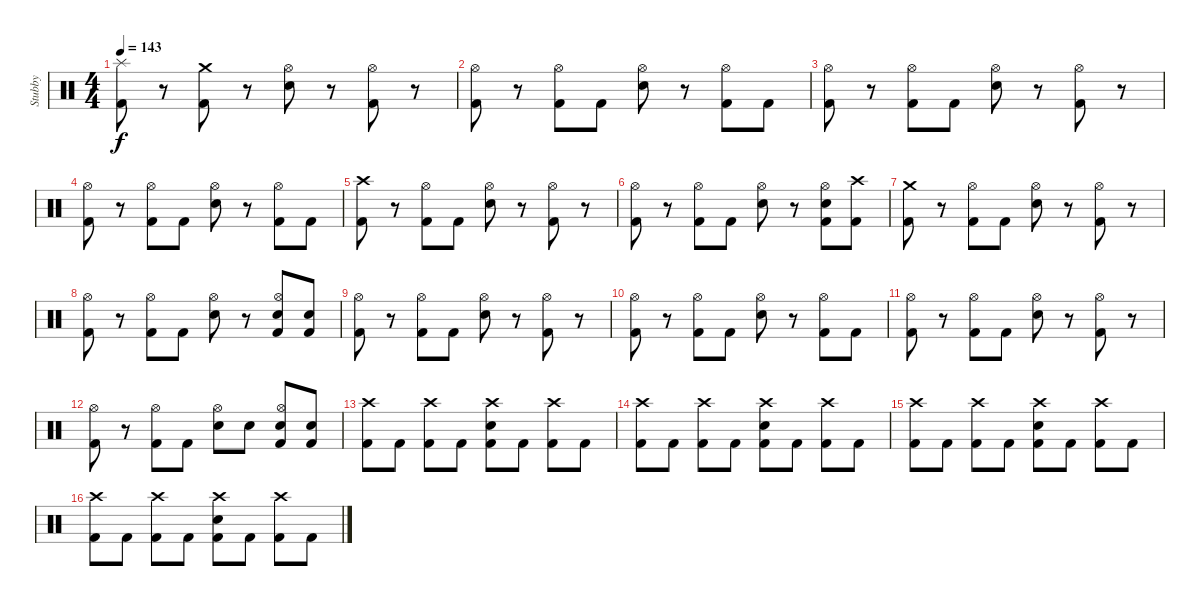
\track ("Stubby" "Stubby") {instrument percussion}
\staff {score}
\articulation defaults
\ts (4 4)
\tempo 143
\clef neutral
\ks c
("Splash (hit)" "Kick (hit) 2").8{dy f} r.8 ("Crash medium (hit)" "Kick (hit) 2").8 r.8 ("Hi-Hat (open)" "Electric Snare (hit)").8 r.8 ("Hi-Hat (open)" "Kick (hit) 2").8 r.8 |
("Hi-Hat (open)" "Kick (hit) 2").8 r.8 ("Hi-Hat (open)" "Kick (hit) 2").8 "Kick (hit) 2".8 ("Hi-Hat (open)" "Electric Snare (hit)").8 r.8 ("Hi-Hat (open)" "Kick (hit) 2").8 "Kick (hit) 2".8 |
("Hi-Hat (open)" "Kick (hit) 2").8 r.8 ("Hi-Hat (open)" "Kick (hit) 2").8 "Kick (hit) 2".8 ("Hi-Hat (open)" "Electric Snare (hit)").8 r.8 ("Hi-Hat (open)" "Kick (hit) 2").8 r.8 |
("Hi-Hat (open)" "Kick (hit) 2").8 r.8 ("Hi-Hat (open)" "Kick (hit) 2").8 "Kick (hit) 2".8 ("Hi-Hat (open)" "Electric Snare (hit)").8 r.8 ("Hi-Hat (open)" "Kick (hit) 2").8 "Kick (hit) 2".8 |
("Crash high (hit)" "Kick (hit) 2").8 r.8 ("Hi-Hat (open)" "Kick (hit) 2").8 "Kick (hit) 2".8 ("Hi-Hat (open)" "Electric Snare (hit)").8 r.8 ("Hi-Hat (open)" "Kick (hit) 2").8 r.8 |
("Hi-Hat (open)" "Kick (hit) 2").8 r.8 ("Hi-Hat (open)" "Kick (hit) 2").8 "Kick (hit) 2".8 ("Hi-Hat (open)" "Electric Snare (hit)").8 r.8 ("Hi-Hat (open)" "Electric Snare (hit)" "Kick (hit) 2").8 ("Crash high (hit)" "Kick (hit) 2").8 |
("Crash medium (hit)" "Kick (hit) 2").8 r.8 ("Hi-Hat (open)" "Kick (hit) 2").8 "Kick (hit) 2".8 ("Hi-Hat (open)" "Electric Snare (hit)").8 r.8 ("Hi-Hat (open)" "Kick (hit) 2").8 r.8 |
("Hi-Hat (open)" "Kick (hit) 2").8 r.8 ("Hi-Hat (open)" "Kick (hit) 2").8 "Kick (hit) 2".8 ("Hi-Hat (open)" "Electric Snare (hit)").8 r.8 ("Hi-Hat (open)" "Electric Snare (hit)" "Kick (hit) 2").8 ("Electric Snare (hit)" "Kick (hit) 2").8 |
("Hi-Hat (open)" "Kick (hit) 2").8 r.8 ("Hi-Hat (open)" "Kick (hit) 2").8 "Kick (hit) 2".8 ("Hi-Hat (open)" "Electric Snare (hit)").8 r.8 ("Hi-Hat (open)" "Kick (hit) 2").8 r.8 |
("Hi-Hat (open)" "Kick (hit) 2").8 r.8 ("Hi-Hat (open)" "Kick (hit) 2").8 "Kick (hit) 2".8 ("Hi-Hat (open)" "Electric Snare (hit)").8 r.8 ("Hi-Hat (open)" "Kick (hit) 2").8 "Kick (hit) 2".8 |
("Hi-Hat (open)" "Kick (hit) 2").8 r.8 ("Hi-Hat (open)" "Kick (hit) 2").8 "Kick (hit) 2".8 ("Hi-Hat (open)" "Electric Snare (hit)").8 r.8 ("Hi-Hat (open)" "Kick (hit) 2").8 r.8 |
("Hi-Hat (open)" "Kick (hit) 2").8 r.8 ("Hi-Hat (open)" "Kick (hit) 2").8 "Kick (hit) 2".8 ("Hi-Hat (open)" "Electric Snare (hit)").8 "Electric Snare (hit)".8 ("Hi-Hat (open)" "Electric Snare (hit)" "Kick (hit) 2").8 ("Electric Snare (hit)" "Kick (hit) 2").8 |
("Crash high (hit)" "Kick (hit) 2").8 "Kick (hit) 2".8 ("Crash high (hit)" "Kick (hit) 2").8 "Kick (hit) 2".8 ("Crash high (hit)" "Electric Snare (hit)" "Kick (hit) 2").8 "Kick (hit) 2".8 ("Crash high (hit)" "Kick (hit) 2").8 "Kick (hit) 2".8 |
("Crash high (hit)" "Kick (hit) 2").8 "Kick (hit) 2".8 ("Crash high (hit)" "Kick (hit) 2").8 "Kick (hit) 2".8 ("Crash high (hit)" "Electric Snare (hit)" "Kick (hit) 2").8 "Kick (hit) 2".8 ("Crash high (hit)" "Kick (hit) 2").8 "Kick (hit) 2".8 |
("Crash high (hit)" "Kick (hit) 2").8 "Kick (hit) 2".8 ("Crash high (hit)" "Kick (hit) 2").8 "Kick (hit) 2".8 ("Crash high (hit)" "Electric Snare (hit)" "Kick (hit) 2").8 "Kick (hit) 2".8 ("Crash high (hit)" "Kick (hit) 2").8 "Kick (hit) 2".8 |
("Crash high (hit)" "Kick (hit) 2").8 "Kick (hit) 2".8 ("Crash high (hit)" "Kick (hit) 2").8 "Kick (hit) 2".8 ("Crash high (hit)" "Electric Snare (hit)" "Kick (hit) 2").8 "Kick (hit) 2".8 ("Crash high (hit)" "Kick (hit) 2").8 "Kick (hit) 2".8
